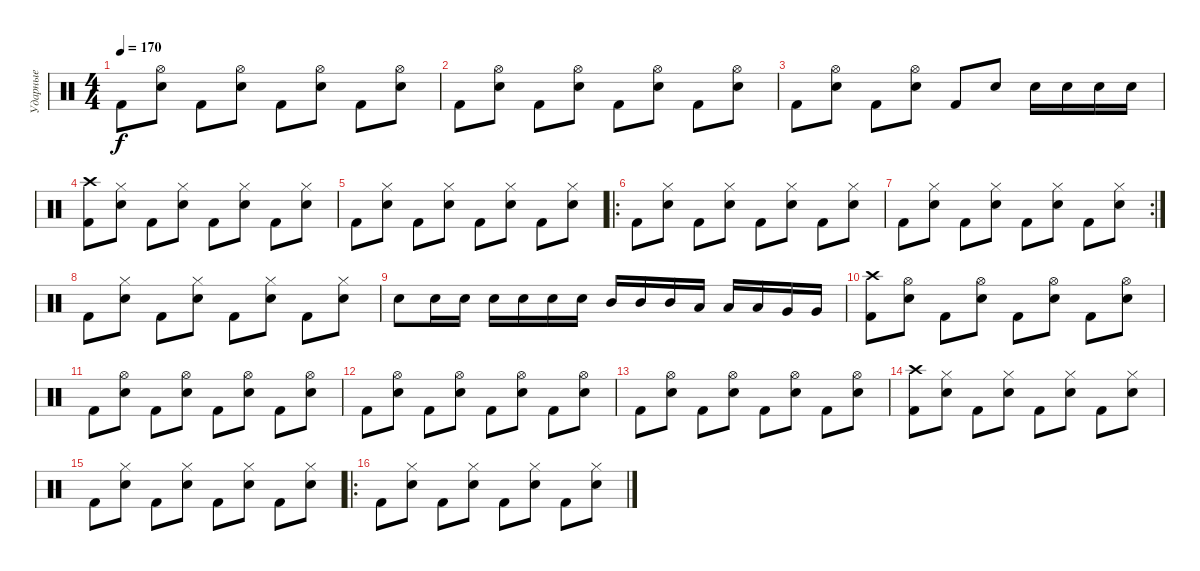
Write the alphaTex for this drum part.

\track ("Ударные" "Ударные") {instrument percussion}
\staff {score}
\articulation defaults
\ts (4 4)
\tempo 170
\clef neutral
\ks c "Kick (hit) 2".8{dy f}
("Hi-Hat (open)" "Electric Snare (hit)").8 "Kick (hit) 2".8 ("Hi-Hat (open)" "Electric Snare (hit)").8 "Kick (hit) 2".8 ("Hi-Hat (open)" "Electric Snare (hit)").8 "Kick (hit) 2".8 ("Hi-Hat (open)" "Electric Snare (hit)").8 |
"Kick (hit) 2".8 ("Hi-Hat (open)" "Electric Snare (hit)").8 "Kick (hit) 2".8 ("Hi-Hat (open)" "Electric Snare (hit)").8 "Kick (hit) 2".8 ("Hi-Hat (open)" "Electric Snare (hit)").8 "Kick (hit) 2".8 ("Hi-Hat (open)" "Electric Snare (hit)").8 |
"Kick (hit) 2".8 ("Hi-Hat (open)" "Electric Snare (hit)").8 "Kick (hit) 2".8 ("Hi-Hat (open)" "Electric Snare (hit)").8 "Kick (hit) 2".8 "Electric Snare (hit)".8 "Electric Snare (hit)".16 "Electric Snare (hit)".16 "Electric Snare (hit)".16 "Electric Snare (hit)".16 |
("Kick (hit) 2" "Crash high (hit)").8 ("Hi-Hat (closed)" "Electric Snare (hit)").8 "Kick (hit) 2".8 ("Hi-Hat (closed)" "Electric Snare (hit)").8 "Kick (hit) 2".8 ("Hi-Hat (closed)" "Electric Snare (hit)").8 "Kick (hit) 2".8 ("Hi-Hat (closed)" "Electric Snare (hit)").8 |
"Kick (hit) 2".8 ("Hi-Hat (closed)" "Electric Snare (hit)").8 "Kick (hit) 2".8 ("Hi-Hat (closed)" "Electric Snare (hit)").8 "Kick (hit) 2".8 ("Hi-Hat (closed)" "Electric Snare (hit)").8 "Kick (hit) 2".8 ("Hi-Hat (closed)" "Electric Snare (hit)").8 |
\ro "Kick (hit) 2".8
("Hi-Hat (closed)" "Electric Snare (hit)").8 "Kick (hit) 2".8 ("Hi-Hat (closed)" "Electric Snare (hit)").8 "Kick (hit) 2".8 ("Hi-Hat (closed)" "Electric Snare (hit)").8 "Kick (hit) 2".8 ("Hi-Hat (closed)" "Electric Snare (hit)").8 |
\rc 2 "Kick (hit) 2".8
("Hi-Hat (closed)" "Electric Snare (hit)").8 "Kick (hit) 2".8 ("Hi-Hat (closed)" "Electric Snare (hit)").8 "Kick (hit) 2".8 ("Hi-Hat (closed)" "Electric Snare (hit)").8 "Kick (hit) 2".8 ("Hi-Hat (closed)" "Electric Snare (hit)").8 |
"Kick (hit) 2".8 ("Hi-Hat (closed)" "Electric Snare (hit)").8 "Kick (hit) 2".8 ("Hi-Hat (closed)" "Electric Snare (hit)").8 "Kick (hit) 2".8 ("Hi-Hat (closed)" "Electric Snare (hit)").8 "Kick (hit) 2".8 ("Hi-Hat (closed)" "Electric Snare (hit)").8 |
"Electric Snare (hit)".8 "Electric Snare (hit)".16 "Electric Snare (hit)".16 "Electric Snare (hit)".16 "Electric Snare (hit)".16 "Electric Snare (hit)".16 "Electric Snare (hit)".16 "Mid Tom (hit)".16 "Mid Tom (hit)".16 "Mid Tom (hit)".16 "Low Tom (hit)".16 "Low Tom (hit)".16 "Low Tom (hit)".16 "Very Low Tom (hit)".16 "Very Low Tom (hit)".16 |
("Kick (hit) 2" "Crash high (hit)").8 ("Hi-Hat (open)" "Electric Snare (hit)").8 "Kick (hit) 2".8 ("Hi-Hat (open)" "Electric Snare (hit)").8 "Kick (hit) 2".8 ("Hi-Hat (open)" "Electric Snare (hit)").8 "Kick (hit) 2".8 ("Hi-Hat (open)" "Electric Snare (hit)").8 |
"Kick (hit) 2".8 ("Hi-Hat (open)" "Electric Snare (hit)").8 "Kick (hit) 2".8 ("Hi-Hat (open)" "Electric Snare (hit)").8 "Kick (hit) 2".8 ("Hi-Hat (open)" "Electric Snare (hit)").8 "Kick (hit) 2".8 ("Hi-Hat (open)" "Electric Snare (hit)").8 |
"Kick (hit) 2".8 ("Hi-Hat (open)" "Electric Snare (hit)").8 "Kick (hit) 2".8 ("Hi-Hat (open)" "Electric Snare (hit)").8 "Kick (hit) 2".8 ("Hi-Hat (open)" "Electric Snare (hit)").8 "Kick (hit) 2".8 ("Hi-Hat (open)" "Electric Snare (hit)").8 |
"Kick (hit) 2".8 ("Hi-Hat (open)" "Electric Snare (hit)").8 "Kick (hit) 2".8 ("Hi-Hat (open)" "Electric Snare (hit)").8 "Kick (hit) 2".8 ("Hi-Hat (open)" "Electric Snare (hit)").8 "Kick (hit) 2".8 ("Hi-Hat (open)" "Electric Snare (hit)").8 |
("Kick (hit) 2" "Crash high (hit)").8 ("Hi-Hat (closed)" "Electric Snare (hit)").8 "Kick (hit) 2".8 ("Hi-Hat (closed)" "Electric Snare (hit)").8 "Kick (hit) 2".8 ("Hi-Hat (closed)" "Electric Snare (hit)").8 "Kick (hit) 2".8 ("Hi-Hat (closed)" "Electric Snare (hit)").8 |
"Kick (hit) 2".8 ("Hi-Hat (closed)" "Electric Snare (hit)").8 "Kick (hit) 2".8 ("Hi-Hat (closed)" "Electric Snare (hit)").8 "Kick (hit) 2".8 ("Hi-Hat (closed)" "Electric Snare (hit)").8 "Kick (hit) 2".8 ("Hi-Hat (closed)" "Electric Snare (hit)").8 |
\ro "Kick (hit) 2".8
("Hi-Hat (closed)" "Electric Snare (hit)").8 "Kick (hit) 2".8 ("Hi-Hat (closed)" "Electric Snare (hit)").8 "Kick (hit) 2".8 ("Hi-Hat (closed)" "Electric Snare (hit)").8 "Kick (hit) 2".8 ("Hi-Hat (closed)" "Electric Snare (hit)").8
